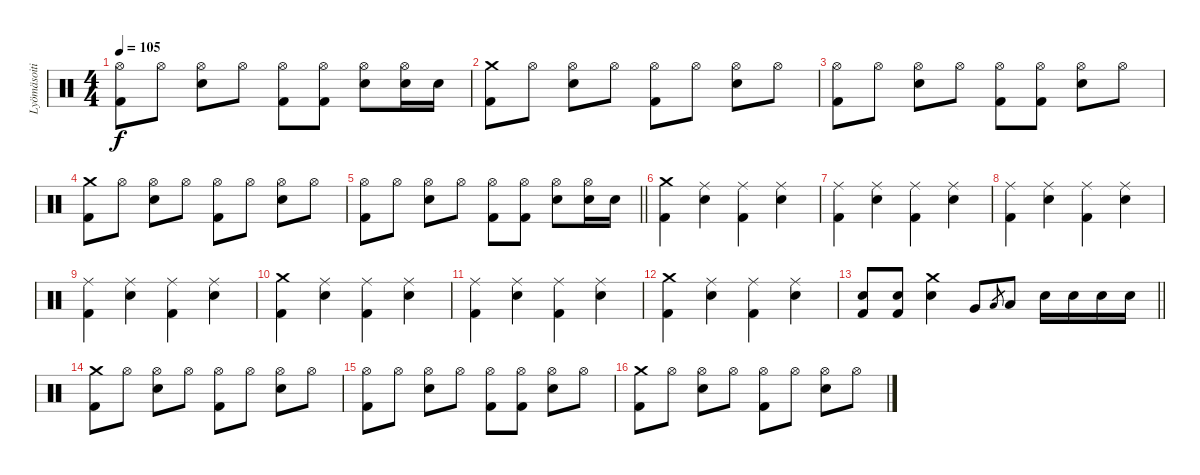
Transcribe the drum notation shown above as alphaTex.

\track ("Lyömäsoitin" "Lyömäsoiti") {instrument percussion}
\staff {score}
\articulation defaults
\ts (4 4)
\tempo 105
\clef neutral
\ks c
("Hi-Hat (open)" "Kick (hit) 2").8{dy f} "Hi-Hat (open)".8 ("Hi-Hat (open)" "Snare (hit) 2").8 "Hi-Hat (open)".8 ("Hi-Hat (open)" "Kick (hit) 2").8 ("Hi-Hat (open)" "Kick (hit) 2").8 ("Hi-Hat (open)" "Snare (hit) 2").8 ("Hi-Hat (open)" "Snare (hit) 2").16 "Snare (hit) 2".16 |
("Crash medium (hit)" "Kick (hit) 2").8 "Hi-Hat (open)".8 ("Hi-Hat (open)" "Snare (hit) 2").8 "Hi-Hat (open)".8 ("Hi-Hat (open)" "Kick (hit) 2").8 "Hi-Hat (open)".8 ("Hi-Hat (open)" "Snare (hit) 2").8 "Hi-Hat (open)".8 |
("Hi-Hat (open)" "Kick (hit) 2").8 "Hi-Hat (open)".8 ("Hi-Hat (open)" "Snare (hit) 2").8 "Hi-Hat (open)".8 ("Hi-Hat (open)" "Kick (hit) 2").8 ("Hi-Hat (open)" "Kick (hit) 2").8 ("Hi-Hat (open)" "Snare (hit) 2").8 "Hi-Hat (open)".8 |
("Crash medium (hit)" "Kick (hit) 2").8 "Hi-Hat (open)".8 ("Hi-Hat (open)" "Snare (hit) 2").8 "Hi-Hat (open)".8 ("Hi-Hat (open)" "Kick (hit) 2").8 "Hi-Hat (open)".8 ("Hi-Hat (open)" "Snare (hit) 2").8 "Hi-Hat (open)".8 |
\barLineRight lightlight
("Hi-Hat (open)" "Kick (hit) 2").8 "Hi-Hat (open)".8 ("Hi-Hat (open)" "Snare (hit) 2").8 "Hi-Hat (open)".8 ("Hi-Hat (open)" "Kick (hit) 2").8 ("Hi-Hat (open)" "Kick (hit) 2").8 ("Hi-Hat (open)" "Snare (hit) 2").8 ("Hi-Hat (open)" "Snare (hit) 2").16 "Snare (hit) 2".16 |
("Crash medium (hit)" "Kick (hit) 2").4 ("Ride (middle)" "Snare (hit) 2").4 ("Ride (middle)" "Kick (hit) 2").4 ("Ride (middle)" "Snare (hit) 2").4 |
("Ride (middle)" "Kick (hit) 2").4 ("Ride (middle)" "Snare (hit) 2").4 ("Ride (middle)" "Kick (hit) 2").4 ("Ride (middle)" "Snare (hit) 2").4 |
("Ride (middle)" "Kick (hit) 2").4 ("Ride (middle)" "Snare (hit) 2").4 ("Ride (middle)" "Kick (hit) 2").4 ("Ride (middle)" "Snare (hit) 2").4 |
("Ride (middle)" "Kick (hit) 2").4 ("Ride (middle)" "Snare (hit) 2").4 ("Ride (middle)" "Kick (hit) 2").4 ("Ride (middle)" "Snare (hit) 2").4 |
("Crash medium (hit)" "Kick (hit) 2").4 ("Ride (middle)" "Snare (hit) 2").4 ("Ride (middle)" "Kick (hit) 2").4 ("Ride (middle)" "Snare (hit) 2").4 |
("Ride (middle)" "Kick (hit) 2").4 ("Ride (middle)" "Snare (hit) 2").4 ("Ride (middle)" "Kick (hit) 2").4 ("Ride (middle)" "Snare (hit) 2").4 |
("Crash medium (hit)" "Kick (hit) 2").4 ("Ride (middle)" "Snare (hit) 2").4 ("Ride (middle)" "Kick (hit) 2").4 ("Ride (middle)" "Snare (hit) 2").4 |
\barLineRight lightlight
("Snare (hit) 2" "Kick (hit) 2").8 ("Snare (hit) 2" "Kick (hit) 2").8 ("Crash medium (hit)" "Snare (hit) 2").4 "Very Low Tom (hit)".8 "Low Floor Tom (hit)".8{gr} "Low Floor Tom (hit)".8 "Snare (hit) 2".16 "Snare (hit) 2".16 "Snare (hit) 2".16 "Snare (hit) 2".16 |
("Crash medium (hit)" "Kick (hit) 2").8 "Hi-Hat (open)".8 ("Hi-Hat (open)" "Snare (hit) 2").8 "Hi-Hat (open)".8 ("Hi-Hat (open)" "Kick (hit) 2").8 "Hi-Hat (open)".8 ("Hi-Hat (open)" "Snare (hit) 2").8 "Hi-Hat (open)".8 |
("Hi-Hat (open)" "Kick (hit) 2").8 "Hi-Hat (open)".8 ("Hi-Hat (open)" "Snare (hit) 2").8 "Hi-Hat (open)".8 ("Hi-Hat (open)" "Kick (hit) 2").8 ("Hi-Hat (open)" "Kick (hit) 2").8 ("Hi-Hat (open)" "Snare (hit) 2").8 "Hi-Hat (open)".8 |
("Crash medium (hit)" "Kick (hit) 2").8 "Hi-Hat (open)".8 ("Hi-Hat (open)" "Snare (hit) 2").8 "Hi-Hat (open)".8 ("Hi-Hat (open)" "Kick (hit) 2").8 "Hi-Hat (open)".8 ("Hi-Hat (open)" "Snare (hit) 2").8 "Hi-Hat (open)".8
